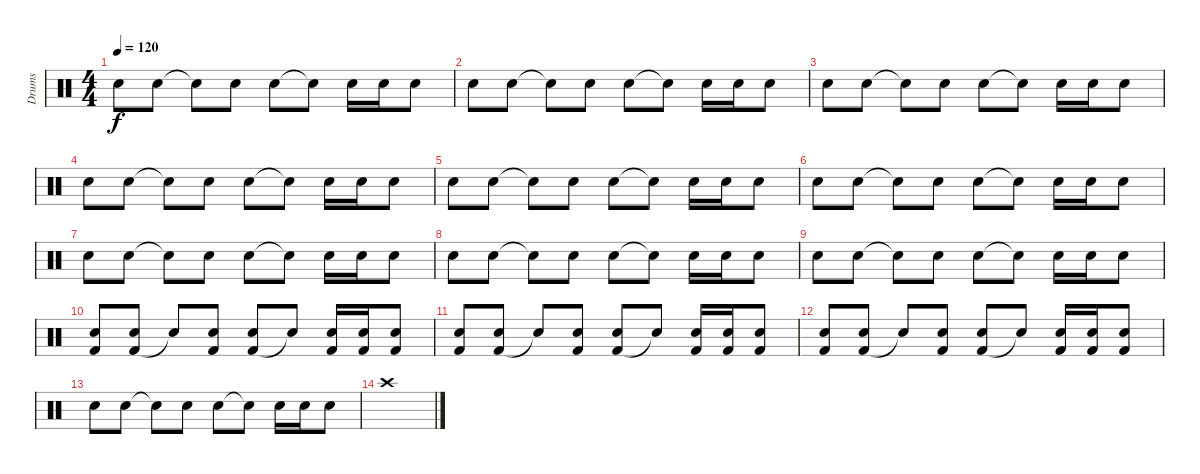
\track ("Drums" "Drums") {instrument percussion}
\staff {score}
\articulation defaults
\ts (4 4)
\tempo 120
\clef neutral
\ks c "Electric Snare (hit)".8{dy f} "Electric Snare (hit)".8 "Electric Snare (hit)"{t}.8 "Electric Snare (hit)".8 "Electric Snare (hit)".8 "Electric Snare (hit)"{t}.8 "Electric Snare (hit)".16 "Electric Snare (hit)".16 "Electric Snare (hit)".8
|
"Electric Snare (hit)".8 "Electric Snare (hit)".8 "Electric Snare (hit)"{t}.8 "Electric Snare (hit)".8 "Electric Snare (hit)".8 "Electric Snare (hit)"{t}.8 "Electric Snare (hit)".16 "Electric Snare (hit)".16 "Electric Snare (hit)".8 |
"Electric Snare (hit)".8 "Electric Snare (hit)".8 "Electric Snare (hit)"{t}.8 "Electric Snare (hit)".8 "Electric Snare (hit)".8 "Electric Snare (hit)"{t}.8 "Electric Snare (hit)".16 "Electric Snare (hit)".16 "Electric Snare (hit)".8 |
"Electric Snare (hit)".8 "Electric Snare (hit)".8 "Electric Snare (hit)"{t}.8 "Electric Snare (hit)".8 "Electric Snare (hit)".8 "Electric Snare (hit)"{t}.8 "Electric Snare (hit)".16 "Electric Snare (hit)".16 "Electric Snare (hit)".8 |
"Electric Snare (hit)".8 "Electric Snare (hit)".8 "Electric Snare (hit)"{t}.8 "Electric Snare (hit)".8 "Electric Snare (hit)".8 "Electric Snare (hit)"{t}.8 "Electric Snare (hit)".16 "Electric Snare (hit)".16 "Electric Snare (hit)".8 |
"Electric Snare (hit)".8 "Electric Snare (hit)".8 "Electric Snare (hit)"{t}.8 "Electric Snare (hit)".8 "Electric Snare (hit)".8 "Electric Snare (hit)"{t}.8 "Electric Snare (hit)".16 "Electric Snare (hit)".16 "Electric Snare (hit)".8 |
"Electric Snare (hit)".8 "Electric Snare (hit)".8 "Electric Snare (hit)"{t}.8 "Electric Snare (hit)".8 "Electric Snare (hit)".8 "Electric Snare (hit)"{t}.8 "Electric Snare (hit)".16 "Electric Snare (hit)".16 "Electric Snare (hit)".8 |
"Electric Snare (hit)".8 "Electric Snare (hit)".8 "Electric Snare (hit)"{t}.8 "Electric Snare (hit)".8 "Electric Snare (hit)".8 "Electric Snare (hit)"{t}.8 "Electric Snare (hit)".16 "Electric Snare (hit)".16 "Electric Snare (hit)".8 |
"Electric Snare (hit)".8 "Electric Snare (hit)".8 "Electric Snare (hit)"{t}.8 "Electric Snare (hit)".8 "Electric Snare (hit)".8 "Electric Snare (hit)"{t}.8 "Electric Snare (hit)".16 "Electric Snare (hit)".16 "Electric Snare (hit)".8 |
("Kick (hit) 2" "Electric Snare (hit)").8 ("Kick (hit) 2" "Electric Snare (hit)").8 "Electric Snare (hit)"{t}.8 ("Kick (hit) 2" "Electric Snare (hit)").8 ("Kick (hit) 2" "Electric Snare (hit)").8 "Electric Snare (hit)"{t}.8 ("Kick (hit) 2" "Electric Snare (hit)").16 ("Kick (hit) 2" "Electric Snare (hit)").16 ("Kick (hit) 2" "Electric Snare (hit)").8 |
("Kick (hit) 2" "Electric Snare (hit)").8 ("Kick (hit) 2" "Electric Snare (hit)").8 "Electric Snare (hit)"{t}.8 ("Kick (hit) 2" "Electric Snare (hit)").8 ("Kick (hit) 2" "Electric Snare (hit)").8 "Electric Snare (hit)"{t}.8 ("Kick (hit) 2" "Electric Snare (hit)").16 ("Kick (hit) 2" "Electric Snare (hit)").16 ("Kick (hit) 2" "Electric Snare (hit)").8 |
("Kick (hit) 2" "Electric Snare (hit)").8 ("Kick (hit) 2" "Electric Snare (hit)").8 "Electric Snare (hit)"{t}.8 ("Kick (hit) 2" "Electric Snare (hit)").8 ("Kick (hit) 2" "Electric Snare (hit)").8 "Electric Snare (hit)"{t}.8 ("Kick (hit) 2" "Electric Snare (hit)").16 ("Kick (hit) 2" "Electric Snare (hit)").16 ("Kick (hit) 2" "Electric Snare (hit)").8 |
"Electric Snare (hit)".8 "Electric Snare (hit)".8 "Electric Snare (hit)"{t}.8 "Electric Snare (hit)".8 "Electric Snare (hit)".8 "Electric Snare (hit)"{t}.8 "Electric Snare (hit)".16 "Electric Snare (hit)".16 "Electric Snare (hit)".8 |
"Crash high (hit)".1
